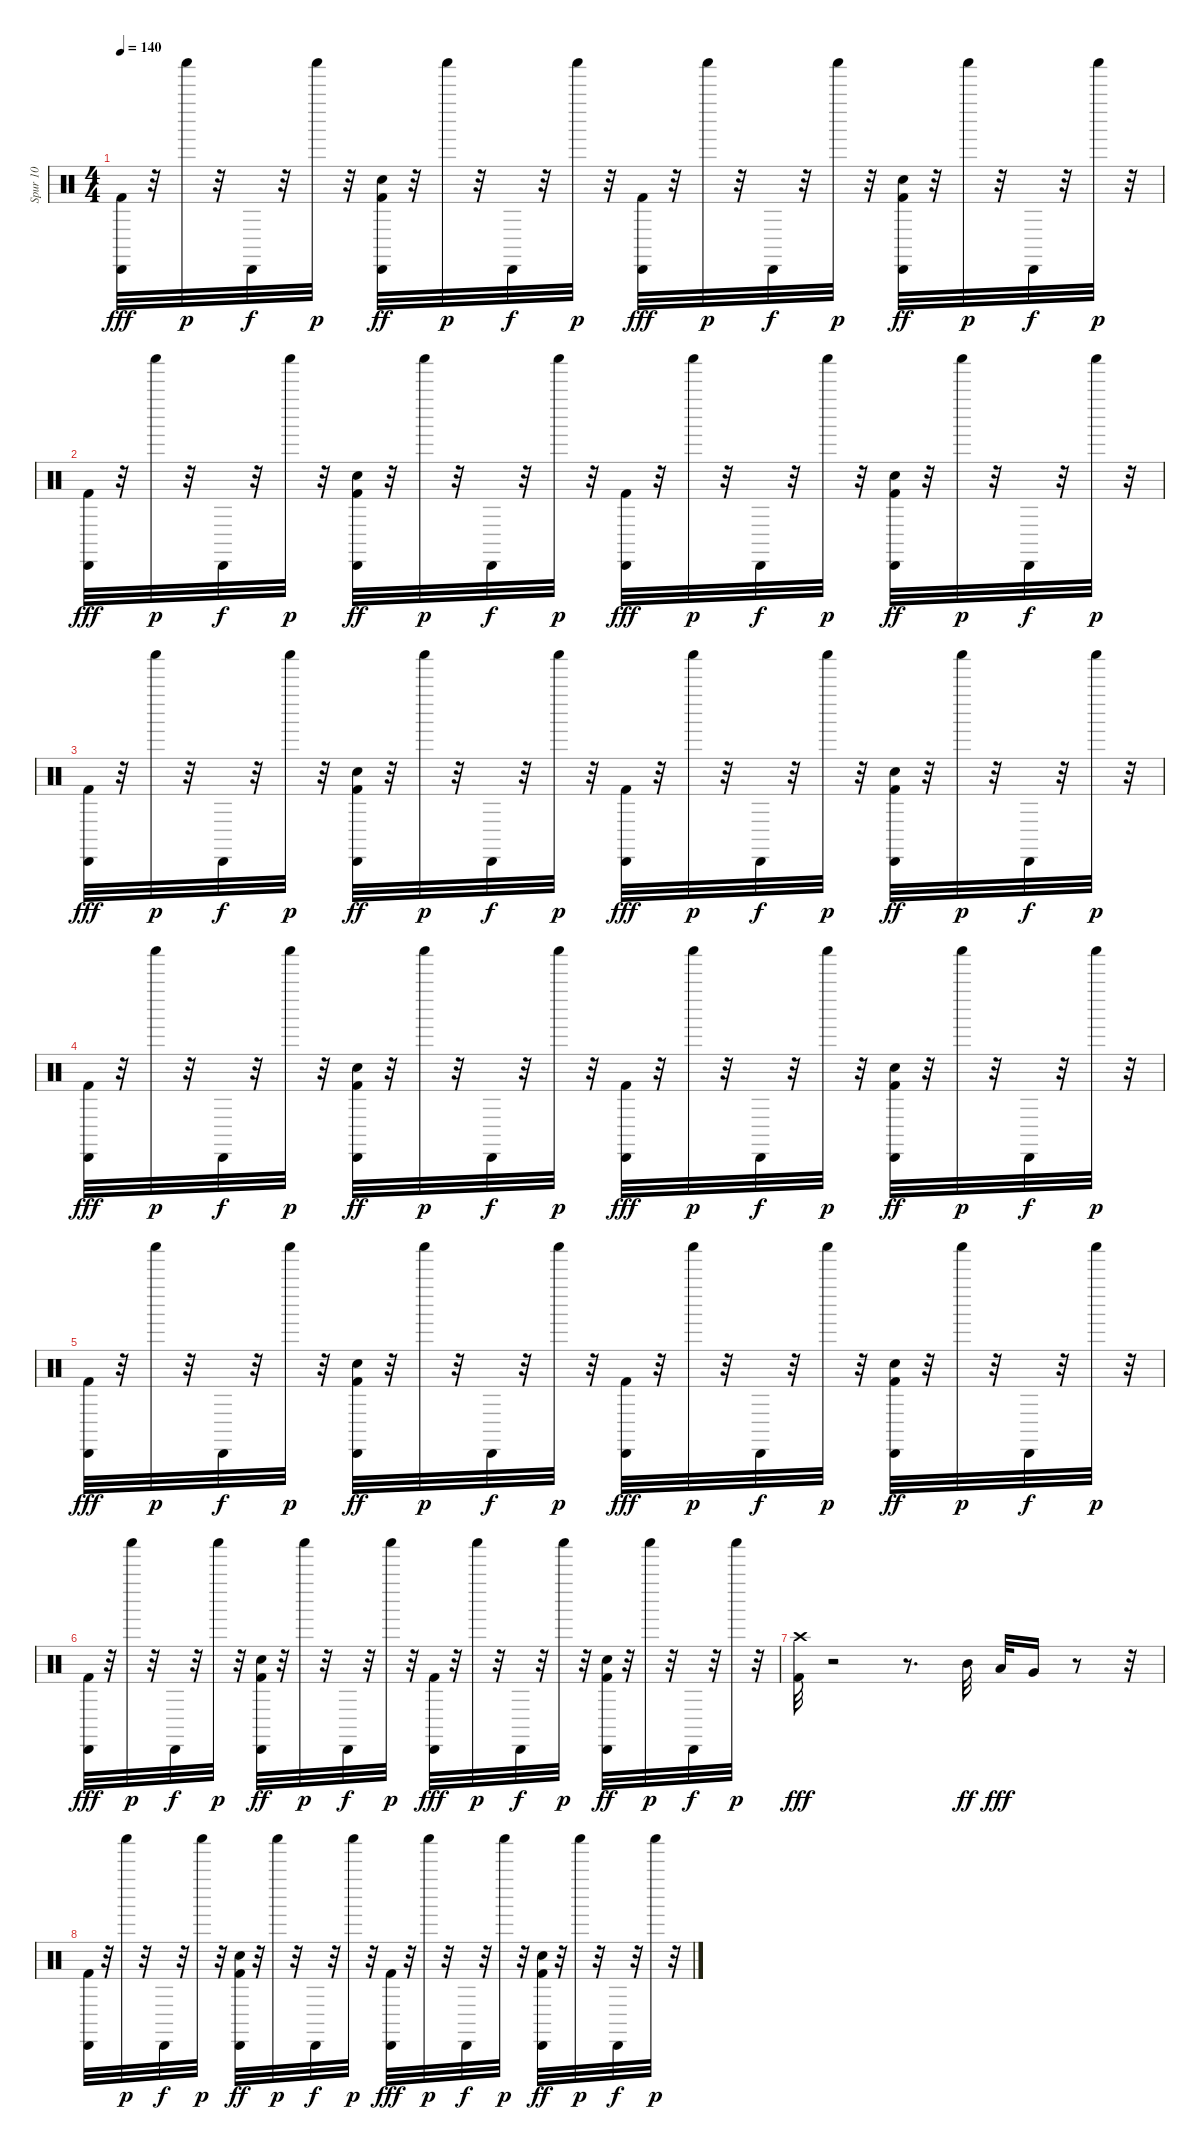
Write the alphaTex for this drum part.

\track ("Spur 10" "Spur 10") {instrument percussion}
\staff {score}
\articulation defaults
\ts (4 4)
\tempo 140
\clef neutral
\ks c
("Cabasa (hit)" "Kick (hit) 2").32{dy fff} r.32 "Shaker (hit)".32{dy p} r.32 "Cabasa (hit)".32{dy f} r.32 "Shaker (hit)".32{dy p} r.32 ("Snare (hit) 2" "Cabasa (hit)" "Kick (hit) 2").32{dy ff} r.32 "Shaker (hit)".32{dy p} r.32 "Cabasa (hit)".32{dy f} r.32 "Shaker (hit)".32{dy p} r.32 ("Cabasa (hit)" "Kick (hit) 2").32{dy fff} r.32 "Shaker (hit)".32{dy p} r.32 "Cabasa (hit)".32{dy f} r.32 "Shaker (hit)".32{dy p} r.32 ("Snare (hit) 2" "Cabasa (hit)" "Kick (hit) 2").32{dy ff} r.32 "Shaker (hit)".32{dy p} r.32 "Cabasa (hit)".32{dy f} r.32 "Shaker (hit)".32{dy p} r.32 |
("Cabasa (hit)" "Kick (hit) 2").32{dy fff} r.32 "Shaker (hit)".32{dy p} r.32 "Cabasa (hit)".32{dy f} r.32 "Shaker (hit)".32{dy p} r.32 ("Snare (hit) 2" "Cabasa (hit)" "Kick (hit) 2").32{dy ff} r.32 "Shaker (hit)".32{dy p} r.32 "Cabasa (hit)".32{dy f} r.32 "Shaker (hit)".32{dy p} r.32 ("Cabasa (hit)" "Kick (hit) 2").32{dy fff} r.32 "Shaker (hit)".32{dy p} r.32 "Cabasa (hit)".32{dy f} r.32 "Shaker (hit)".32{dy p} r.32 ("Snare (hit) 2" "Cabasa (hit)" "Kick (hit) 2").32{dy ff} r.32 "Shaker (hit)".32{dy p} r.32 "Cabasa (hit)".32{dy f} r.32 "Shaker (hit)".32{dy p} r.32 |
("Cabasa (hit)" "Kick (hit) 2").32{dy fff} r.32 "Shaker (hit)".32{dy p} r.32 "Cabasa (hit)".32{dy f} r.32 "Shaker (hit)".32{dy p} r.32 ("Snare (hit) 2" "Cabasa (hit)" "Kick (hit) 2").32{dy ff} r.32 "Shaker (hit)".32{dy p} r.32 "Cabasa (hit)".32{dy f} r.32 "Shaker (hit)".32{dy p} r.32 ("Cabasa (hit)" "Kick (hit) 2").32{dy fff} r.32 "Shaker (hit)".32{dy p} r.32 "Cabasa (hit)".32{dy f} r.32 "Shaker (hit)".32{dy p} r.32 ("Snare (hit) 2" "Cabasa (hit)" "Kick (hit) 2").32{dy ff} r.32 "Shaker (hit)".32{dy p} r.32 "Cabasa (hit)".32{dy f} r.32 "Shaker (hit)".32{dy p} r.32 |
("Cabasa (hit)" "Kick (hit) 2").32{dy fff} r.32 "Shaker (hit)".32{dy p} r.32 "Cabasa (hit)".32{dy f} r.32 "Shaker (hit)".32{dy p} r.32 ("Snare (hit) 2" "Cabasa (hit)" "Kick (hit) 2").32{dy ff} r.32 "Shaker (hit)".32{dy p} r.32 "Cabasa (hit)".32{dy f} r.32 "Shaker (hit)".32{dy p} r.32 ("Cabasa (hit)" "Kick (hit) 2").32{dy fff} r.32 "Shaker (hit)".32{dy p} r.32 "Cabasa (hit)".32{dy f} r.32 "Shaker (hit)".32{dy p} r.32 ("Snare (hit) 2" "Cabasa (hit)" "Kick (hit) 2").32{dy ff} r.32 "Shaker (hit)".32{dy p} r.32 "Cabasa (hit)".32{dy f} r.32 "Shaker (hit)".32{dy p} r.32 |
("Cabasa (hit)" "Kick (hit) 2").32{dy fff} r.32 "Shaker (hit)".32{dy p} r.32 "Cabasa (hit)".32{dy f} r.32 "Shaker (hit)".32{dy p} r.32 ("Snare (hit) 2" "Cabasa (hit)" "Kick (hit) 2").32{dy ff} r.32 "Shaker (hit)".32{dy p} r.32 "Cabasa (hit)".32{dy f} r.32 "Shaker (hit)".32{dy p} r.32 ("Cabasa (hit)" "Kick (hit) 2").32{dy fff} r.32 "Shaker (hit)".32{dy p} r.32 "Cabasa (hit)".32{dy f} r.32 "Shaker (hit)".32{dy p} r.32 ("Snare (hit) 2" "Cabasa (hit)" "Kick (hit) 2").32{dy ff} r.32 "Shaker (hit)".32{dy p} r.32 "Cabasa (hit)".32{dy f} r.32 "Shaker (hit)".32{dy p} r.32 |
("Cabasa (hit)" "Kick (hit) 2").32{dy fff} r.32 "Shaker (hit)".32{dy p} r.32 "Cabasa (hit)".32{dy f} r.32 "Shaker (hit)".32{dy p} r.32 ("Snare (hit) 2" "Cabasa (hit)" "Kick (hit) 2").32{dy ff} r.32 "Shaker (hit)".32{dy p} r.32 "Cabasa (hit)".32{dy f} r.32 "Shaker (hit)".32{dy p} r.32 ("Cabasa (hit)" "Kick (hit) 2").32{dy fff} r.32 "Shaker (hit)".32{dy p} r.32 "Cabasa (hit)".32{dy f} r.32 "Shaker (hit)".32{dy p} r.32 ("Snare (hit) 2" "Cabasa (hit)" "Kick (hit) 2").32{dy ff} r.32 "Shaker (hit)".32{dy p} r.32 "Cabasa (hit)".32{dy f} r.32 "Shaker (hit)".32{dy p} r.32 |
("Crash high (hit)" "Kick (hit) 2").32{dy fff} r.2 r.8{d} "Mid Tom (hit)".32{dy ff} "Low Tom (hit)".32{dy fff} "Very Low Tom (hit)".16 r.8 r.32 |
("Cabasa (hit)" "Kick (hit) 2").32 r.32 "Shaker (hit)".32{dy p} r.32 "Cabasa (hit)".32{dy f} r.32 "Shaker (hit)".32{dy p} r.32 ("Snare (hit) 2" "Cabasa (hit)" "Kick (hit) 2").32{dy ff} r.32 "Shaker (hit)".32{dy p} r.32 "Cabasa (hit)".32{dy f} r.32 "Shaker (hit)".32{dy p} r.32 ("Cabasa (hit)" "Kick (hit) 2").32{dy fff} r.32 "Shaker (hit)".32{dy p} r.32 "Cabasa (hit)".32{dy f} r.32 "Shaker (hit)".32{dy p} r.32 ("Snare (hit) 2" "Cabasa (hit)" "Kick (hit) 2").32{dy ff} r.32 "Shaker (hit)".32{dy p} r.32 "Cabasa (hit)".32{dy f} r.32 "Shaker (hit)".32{dy p} r.32
